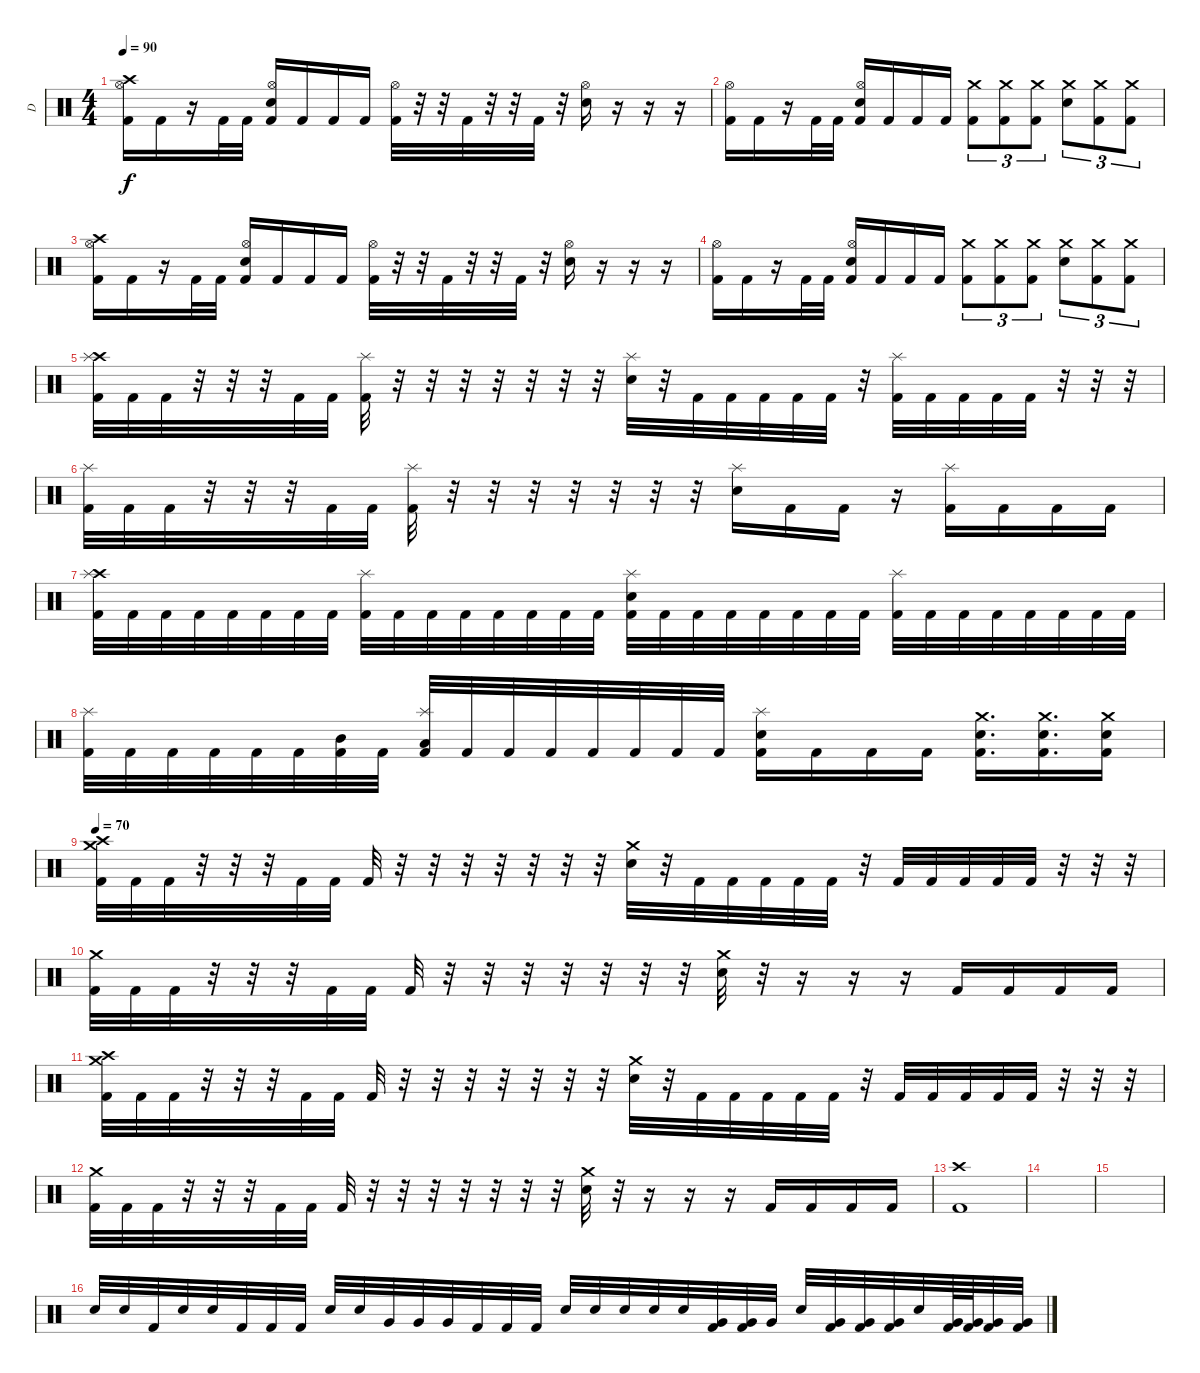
\track ("D" "D") {instrument percussion}
\staff {score}
\articulation defaults
\ts (4 4)
\tempo 90
\clef neutral
\ks c
("Crash high (hit)" "Kick (hit) 2" "Hi-Hat (open)").16{dy f} "Kick (hit) 2".16 r.16 "Kick (hit) 2".32 "Kick (hit) 2".32 ("Electric Snare (hit)" "Kick (hit) 2" "Hi-Hat (open)").16 "Kick (hit) 2".16 "Kick (hit) 2".16 "Kick (hit) 2".16 ("Kick (hit) 2" "Hi-Hat (open)").32 r.32 r.32 "Kick (hit) 2".32 r.32 r.32 "Kick (hit) 2".32 r.32 ("Electric Snare (hit)" "Hi-Hat (open)").16 r.16 r.16 r.16 |
("Kick (hit) 2" "Hi-Hat (open)").16 "Kick (hit) 2".16 r.16 "Kick (hit) 2".32 "Kick (hit) 2".32 ("Electric Snare (hit)" "Kick (hit) 2" "Hi-Hat (open)").16 "Kick (hit) 2".16 "Kick (hit) 2".16 "Kick (hit) 2".16 ("Kick (hit) 2" "Crash medium (hit)").8{tu (3 2)} ("Kick (hit) 2" "Crash medium (hit)").8{tu (3 2)} ("Kick (hit) 2" "Crash medium (hit)").8{tu (3 2)} ("Electric Snare (hit)" "Crash medium (hit)").8{tu (3 2)} ("Kick (hit) 2" "Crash medium (hit)").8{tu (3 2)} ("Kick (hit) 2" "Crash medium (hit)").8{tu (3 2)} |
("Crash high (hit)" "Kick (hit) 2" "Hi-Hat (open)").16 "Kick (hit) 2".16 r.16 "Kick (hit) 2".32 "Kick (hit) 2".32 ("Electric Snare (hit)" "Kick (hit) 2" "Hi-Hat (open)").16 "Kick (hit) 2".16 "Kick (hit) 2".16 "Kick (hit) 2".16 ("Kick (hit) 2" "Hi-Hat (open)").32 r.32 r.32 "Kick (hit) 2".32 r.32 r.32 "Kick (hit) 2".32 r.32 ("Electric Snare (hit)" "Hi-Hat (open)").16 r.16 r.16 r.16 |
("Kick (hit) 2" "Hi-Hat (open)").16 "Kick (hit) 2".16 r.16 "Kick (hit) 2".32 "Kick (hit) 2".32 ("Electric Snare (hit)" "Kick (hit) 2" "Hi-Hat (open)").16 "Kick (hit) 2".16 "Kick (hit) 2".16 "Kick (hit) 2".16 ("Kick (hit) 2" "Crash medium (hit)").8{tu (3 2)} ("Kick (hit) 2" "Crash medium (hit)").8{tu (3 2)} ("Kick (hit) 2" "Crash medium (hit)").8{tu (3 2)} ("Electric Snare (hit)" "Crash medium (hit)").8{tu (3 2)} ("Kick (hit) 2" "Crash medium (hit)").8{tu (3 2)} ("Kick (hit) 2" "Crash medium (hit)").8{tu (3 2)} |
("Crash high (hit)" "Kick (hit) 2" "Splash (hit)").32 "Kick (hit) 2".32 "Kick (hit) 2".32 r.32 r.32 r.32 "Kick (hit) 2".32 "Kick (hit) 2".32 ("Kick (hit) 2" "Splash (hit)").32 r.32 r.32 r.32 r.32 r.32 r.32 r.32 ("Electric Snare (hit)" "Splash (hit)").32 r.32 "Kick (hit) 2".32 "Kick (hit) 2".32 "Kick (hit) 2".32 "Kick (hit) 2".32 "Kick (hit) 2".32 r.32 ("Kick (hit) 2" "Splash (hit)").32 "Kick (hit) 2".32 "Kick (hit) 2".32 "Kick (hit) 2".32 "Kick (hit) 2".32 r.32 r.32 r.32 |
("Kick (hit) 2" "Splash (hit)").32 "Kick (hit) 2".32 "Kick (hit) 2".32 r.32 r.32 r.32 "Kick (hit) 2".32 "Kick (hit) 2".32 ("Kick (hit) 2" "Splash (hit)").32 r.32 r.32 r.32 r.32 r.32 r.32 r.32 ("Electric Snare (hit)" "Splash (hit)").16 "Kick (hit) 2".16 "Kick (hit) 2".16 r.16 ("Kick (hit) 2" "Splash (hit)").16 "Kick (hit) 2".16 "Kick (hit) 2".16 "Kick (hit) 2".16 |
("Crash high (hit)" "Kick (hit) 2" "Splash (hit)").32 "Kick (hit) 2".32 "Kick (hit) 2".32 "Kick (hit) 2".32 "Kick (hit) 2".32 "Kick (hit) 2".32 "Kick (hit) 2".32 "Kick (hit) 2".32 ("Kick (hit) 2" "Splash (hit)").32 "Kick (hit) 2".32 "Kick (hit) 2".32 "Kick (hit) 2".32 "Kick (hit) 2".32 "Kick (hit) 2".32 "Kick (hit) 2".32 "Kick (hit) 2".32 ("Electric Snare (hit)" "Kick (hit) 2" "Splash (hit)").32 "Kick (hit) 2".32 "Kick (hit) 2".32 "Kick (hit) 2".32 "Kick (hit) 2".32 "Kick (hit) 2".32 "Kick (hit) 2".32 "Kick (hit) 2".32 ("Kick (hit) 2" "Splash (hit)").32 "Kick (hit) 2".32 "Kick (hit) 2".32 "Kick (hit) 2".32 "Kick (hit) 2".32 "Kick (hit) 2".32 "Kick (hit) 2".32 "Kick (hit) 2".32 |
("Kick (hit) 2" "Splash (hit)").32 "Kick (hit) 2".32 "Kick (hit) 2".32 "Kick (hit) 2".32 "Kick (hit) 2".32 "Kick (hit) 2".32 ("Mid Tom (hit)" "Kick (hit) 2").32 "Kick (hit) 2".32 ("Low Tom (hit)" "Kick (hit) 2" "Splash (hit)").32 "Kick (hit) 2".32 "Kick (hit) 2".32 "Kick (hit) 2".32 "Kick (hit) 2".32 "Kick (hit) 2".32 "Kick (hit) 2".32 "Kick (hit) 2".32 ("Electric Snare (hit)" "Kick (hit) 2" "Splash (hit)").16 "Kick (hit) 2".16 "Kick (hit) 2".16 "Kick (hit) 2".16 ("Electric Snare (hit)" "Kick (hit) 2" "Crash medium (hit)").16{d} ("Electric Snare (hit)" "Kick (hit) 2" "Crash medium (hit)").16{d} ("Electric Snare (hit)" "Kick (hit) 2" "Crash medium (hit)").16 |
\tempo 70
("Crash high (hit)" "Kick (hit) 2" "Crash medium (hit)").32 "Kick (hit) 2".32 "Kick (hit) 2".32 r.32 r.32 r.32 "Kick (hit) 2".32 "Kick (hit) 2".32 "Kick (hit) 2".32 r.32 r.32 r.32 r.32 r.32 r.32 r.32 ("Electric Snare (hit)" "Crash medium (hit)").32 r.32 "Kick (hit) 2".32 "Kick (hit) 2".32 "Kick (hit) 2".32 "Kick (hit) 2".32 "Kick (hit) 2".32 r.32 "Kick (hit) 2".32 "Kick (hit) 2".32 "Kick (hit) 2".32 "Kick (hit) 2".32 "Kick (hit) 2".32 r.32 r.32 r.32 |
("Kick (hit) 2" "Crash medium (hit)").32 "Kick (hit) 2".32 "Kick (hit) 2".32 r.32 r.32 r.32 "Kick (hit) 2".32 "Kick (hit) 2".32 "Kick (hit) 2".32 r.32 r.32 r.32 r.32 r.32 r.32 r.32 ("Electric Snare (hit)" "Crash medium (hit)").32 r.32 r.16 r.16 r.16 "Kick (hit) 2".16 "Kick (hit) 2".16 "Kick (hit) 2".16 "Kick (hit) 2".16 |
("Crash high (hit)" "Kick (hit) 2" "Crash medium (hit)").32 "Kick (hit) 2".32 "Kick (hit) 2".32 r.32 r.32 r.32 "Kick (hit) 2".32 "Kick (hit) 2".32 "Kick (hit) 2".32 r.32 r.32 r.32 r.32 r.32 r.32 r.32 ("Electric Snare (hit)" "Crash medium (hit)").32 r.32 "Kick (hit) 2".32 "Kick (hit) 2".32 "Kick (hit) 2".32 "Kick (hit) 2".32 "Kick (hit) 2".32 r.32 "Kick (hit) 2".32 "Kick (hit) 2".32 "Kick (hit) 2".32 "Kick (hit) 2".32 "Kick (hit) 2".32 r.32 r.32 r.32 |
("Kick (hit) 2" "Crash medium (hit)").32 "Kick (hit) 2".32 "Kick (hit) 2".32 r.32 r.32 r.32 "Kick (hit) 2".32 "Kick (hit) 2".32 "Kick (hit) 2".32 r.32 r.32 r.32 r.32 r.32 r.32 r.32 ("Electric Snare (hit)" "Crash medium (hit)").32 r.32 r.16 r.16 r.16 "Kick (hit) 2".16 "Kick (hit) 2".16 "Kick (hit) 2".16 "Kick (hit) 2".16 |
("Crash high (hit)" "Kick (hit) 2").1 |
|
|
"Electric Snare (hit)".32 "Electric Snare (hit)".32 "Kick (hit) 2".32 "Electric Snare (hit)".32 "Electric Snare (hit)".32 "Kick (hit) 2".32 "Kick (hit) 2".32 "Kick (hit) 2".32 "Electric Snare (hit)".32 "Electric Snare (hit)".32 "Very Low Tom (hit)".32 "Very Low Tom (hit)".32 "Very Low Tom (hit)".32 "Kick (hit) 2".32 "Kick (hit) 2".32 "Kick (hit) 2".32 "Electric Snare (hit)".32 "Electric Snare (hit)".32 "Electric Snare (hit)".32 "Electric Snare (hit)".32 "Electric Snare (hit)".32 ("Very Low Tom (hit)" "Kick (hit) 2").32 ("Very Low Tom (hit)" "Kick (hit) 2").32 "Very Low Tom (hit)".32 "Electric Snare (hit)".32 ("Very Low Tom (hit)" "Kick (hit) 2").32 ("Very Low Tom (hit)" "Kick (hit) 2").32 ("Very Low Tom (hit)" "Kick (hit) 2").32 "Electric Snare (hit)".32 ("Very Low Tom (hit)" "Kick (hit) 2").64 ("Very Low Tom (hit)" "Kick (hit) 2").64 ("Very Low Tom (hit)" "Kick (hit) 2").32 ("Very Low Tom (hit)" "Kick (hit) 2").32
